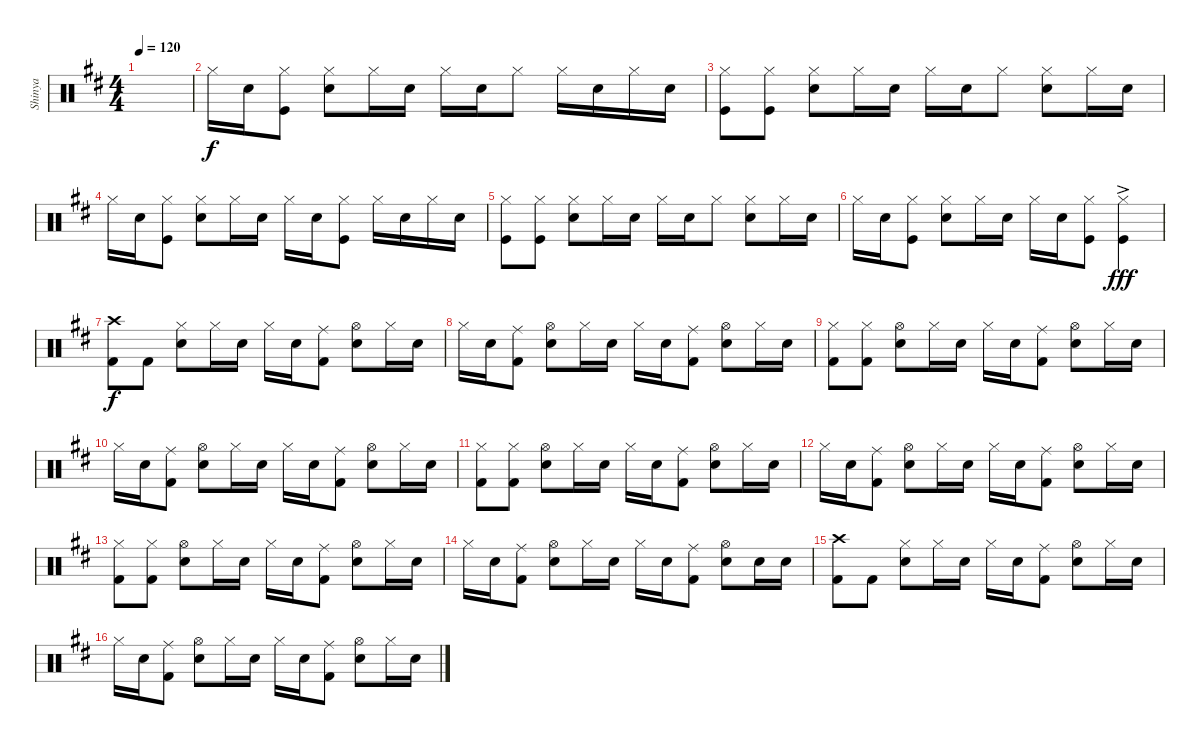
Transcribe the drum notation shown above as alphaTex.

\track ("Shinya" "Shinya") {instrument percussion}
\staff {score}
\articulation defaults
\ts (4 4)
\tempo 120
\clef neutral
\ks bminor
|
"Hi-Hat (closed)".16{volume 8} "Electric Snare (hit)".16 ("Hi-Hat (closed)" "Kick (hit)").8 ("Hi-Hat (closed)" "Electric Snare (hit)").8 "Hi-Hat (closed)".16 "Electric Snare (hit)".16 "Hi-Hat (closed)".16 "Electric Snare (hit)".16 "Hi-Hat (closed)".8 "Hi-Hat (closed)".16 "Electric Snare (hit)".16 "Hi-Hat (closed)".16 "Electric Snare (hit)".16 |
("Hi-Hat (closed)" "Kick (hit)").8 ("Hi-Hat (closed)" "Kick (hit)").8 ("Hi-Hat (closed)" "Electric Snare (hit)").8 "Hi-Hat (closed)".16 "Electric Snare (hit)".16 "Hi-Hat (closed)".16 "Electric Snare (hit)".16 "Hi-Hat (closed)".8 ("Hi-Hat (closed)" "Electric Snare (hit)").8 "Hi-Hat (closed)".16 "Electric Snare (hit)".16 |
"Hi-Hat (closed)".16 "Electric Snare (hit)".16 ("Hi-Hat (closed)" "Kick (hit)").8 ("Hi-Hat (closed)" "Electric Snare (hit)").8 "Hi-Hat (closed)".16 "Electric Snare (hit)".16 "Hi-Hat (closed)".16 "Electric Snare (hit)".16 ("Hi-Hat (closed)" "Kick (hit)").8 "Hi-Hat (closed)".16 "Electric Snare (hit)".16 "Hi-Hat (closed)".16 "Electric Snare (hit)".16 |
("Hi-Hat (closed)" "Kick (hit)").8 ("Hi-Hat (closed)" "Kick (hit)").8 ("Hi-Hat (closed)" "Electric Snare (hit)").8 "Hi-Hat (closed)".16 "Electric Snare (hit)".16 "Hi-Hat (closed)".16 "Electric Snare (hit)".16 "Hi-Hat (closed)".8 ("Hi-Hat (closed)" "Electric Snare (hit)").8 "Hi-Hat (closed)".16 "Electric Snare (hit)".16 |
"Hi-Hat (closed)".16 "Electric Snare (hit)".16 ("Hi-Hat (closed)" "Kick (hit)").8 ("Hi-Hat (closed)" "Electric Snare (hit)").8 "Hi-Hat (closed)".16 "Electric Snare (hit)".16 "Hi-Hat (closed)".16 "Electric Snare (hit)".16 ("Hi-Hat (closed)" "Kick (hit)").8 ("Hi-Hat (closed)"{ac} "Kick (hit)").4{dy fff} |
("Kick (hit) 2" "Crash high (hit)").8{dy f volume 13} "Kick (hit) 2".8 ("Hi-Hat (closed)" "Snare (hit) 2").8 "Hi-Hat (closed)".16 "Snare (hit) 2".16 "Hi-Hat (closed)".16 "Snare (hit) 2".16 ("Ride (middle)" "Kick (hit) 2").8 ("Hi-Hat (open)" "Snare (hit) 2").8 "Hi-Hat (closed)".16 "Snare (hit) 2".16 |
"Hi-Hat (closed)".16 "Snare (hit) 2".16 ("Ride (middle)" "Kick (hit) 2").8 ("Hi-Hat (open)" "Snare (hit) 2").8 "Hi-Hat (closed)".16 "Snare (hit) 2".16 "Hi-Hat (closed)".16 "Snare (hit) 2".16 ("Ride (middle)" "Kick (hit) 2").8 ("Hi-Hat (open)" "Snare (hit) 2").8 "Hi-Hat (closed)".16 "Snare (hit) 2".16 |
("Kick (hit) 2" "Hi-Hat (closed)").8 ("Hi-Hat (closed)" "Kick (hit) 2").8 ("Hi-Hat (open)" "Snare (hit) 2").8 "Hi-Hat (closed)".16 "Snare (hit) 2".16 "Hi-Hat (closed)".16 "Snare (hit) 2".16 ("Ride (middle)" "Kick (hit) 2").8 ("Hi-Hat (open)" "Snare (hit) 2").8 "Hi-Hat (closed)".16 "Snare (hit) 2".16 |
"Hi-Hat (closed)".16 "Snare (hit) 2".16 ("Ride (middle)" "Kick (hit) 2").8 ("Hi-Hat (open)" "Snare (hit) 2").8 "Hi-Hat (closed)".16 "Snare (hit) 2".16 "Hi-Hat (closed)".16 "Snare (hit) 2".16 ("Ride (middle)" "Kick (hit) 2").8 ("Hi-Hat (open)" "Snare (hit) 2").8 "Hi-Hat (closed)".16 "Snare (hit) 2".16 |
("Kick (hit) 2" "Hi-Hat (closed)").8 ("Hi-Hat (closed)" "Kick (hit) 2").8 ("Hi-Hat (open)" "Snare (hit) 2").8 "Hi-Hat (closed)".16 "Snare (hit) 2".16 "Hi-Hat (closed)".16 "Snare (hit) 2".16 ("Ride (middle)" "Kick (hit) 2").8 ("Hi-Hat (open)" "Snare (hit) 2").8 "Hi-Hat (closed)".16 "Snare (hit) 2".16 |
"Hi-Hat (closed)".16 "Snare (hit) 2".16 ("Ride (middle)" "Kick (hit) 2").8 ("Hi-Hat (open)" "Snare (hit) 2").8 "Hi-Hat (closed)".16 "Snare (hit) 2".16 "Hi-Hat (closed)".16 "Snare (hit) 2".16 ("Ride (middle)" "Kick (hit) 2").8 ("Hi-Hat (open)" "Snare (hit) 2").8 "Hi-Hat (closed)".16 "Snare (hit) 2".16 |
("Kick (hit) 2" "Hi-Hat (closed)").8 ("Hi-Hat (closed)" "Kick (hit) 2").8 ("Hi-Hat (open)" "Snare (hit) 2").8 "Hi-Hat (closed)".16 "Snare (hit) 2".16 "Hi-Hat (closed)".16 "Snare (hit) 2".16 ("Ride (middle)" "Kick (hit) 2").8 ("Hi-Hat (open)" "Snare (hit) 2").8 "Hi-Hat (closed)".16 "Snare (hit) 2".16 |
"Hi-Hat (closed)".16 "Snare (hit) 2".16 ("Ride (middle)" "Kick (hit) 2").8 ("Hi-Hat (open)" "Snare (hit) 2").8 "Hi-Hat (closed)".16 "Snare (hit) 2".16 "Hi-Hat (closed)".16 "Snare (hit) 2".16 ("Ride (middle)" "Kick (hit) 2").8 ("Hi-Hat (open)" "Snare (hit) 2").8 "Snare (hit) 2".16 "Snare (hit) 2".16 |
("Kick (hit) 2" "Crash high (hit)").8 "Kick (hit) 2".8 ("Hi-Hat (closed)" "Snare (hit) 2").8 "Hi-Hat (closed)".16 "Snare (hit) 2".16 "Hi-Hat (closed)".16 "Snare (hit) 2".16 ("Ride (middle)" "Kick (hit) 2").8 ("Hi-Hat (open)" "Snare (hit) 2").8 "Hi-Hat (closed)".16 "Snare (hit) 2".16 |
"Hi-Hat (closed)".16 "Snare (hit) 2".16 ("Ride (middle)" "Kick (hit) 2").8 ("Hi-Hat (open)" "Snare (hit) 2").8 "Hi-Hat (closed)".16 "Snare (hit) 2".16 "Hi-Hat (closed)".16 "Snare (hit) 2".16 ("Ride (middle)" "Kick (hit) 2").8 ("Hi-Hat (open)" "Snare (hit) 2").8 "Hi-Hat (closed)".16 "Snare (hit) 2".16
